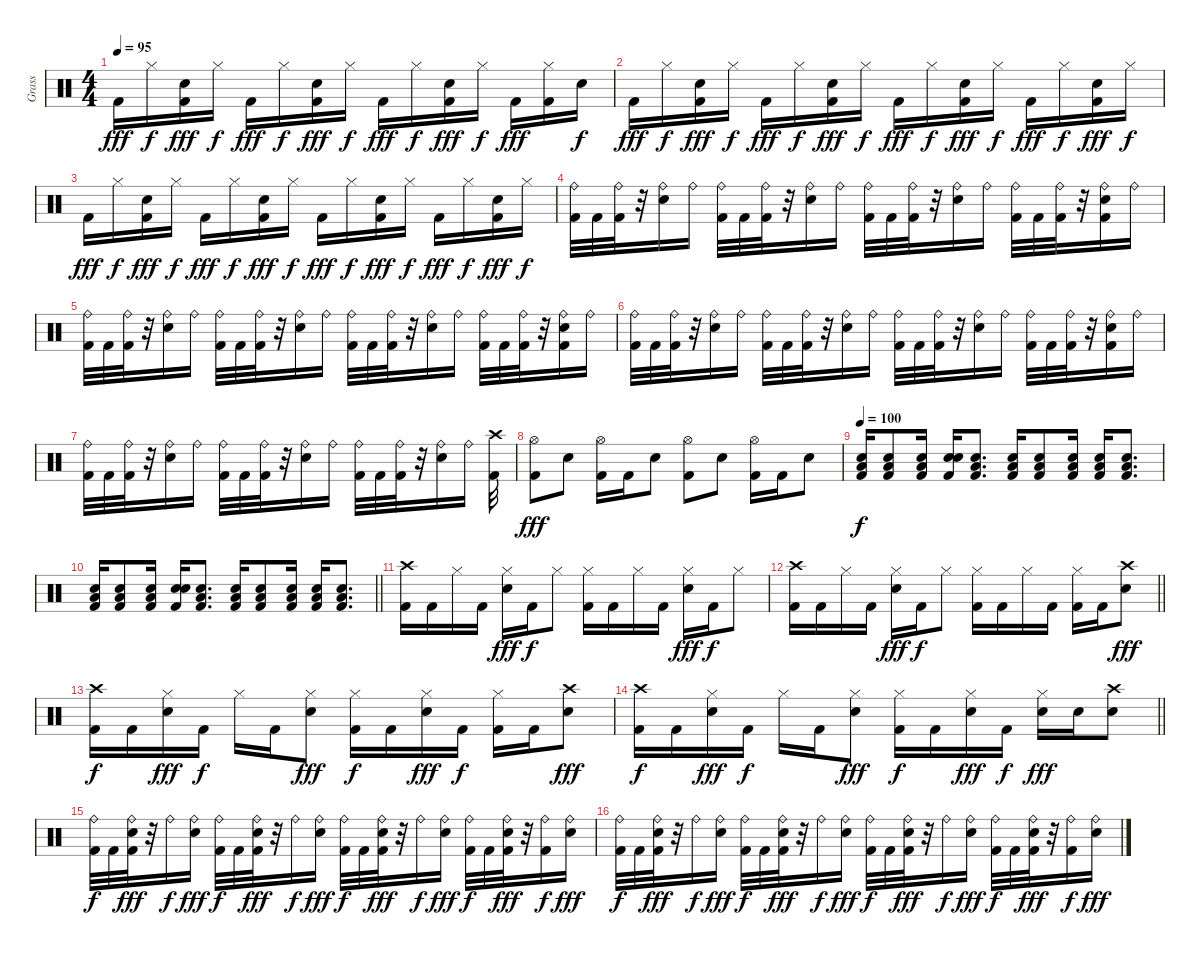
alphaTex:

\track ("Grass" "Grass") {instrument percussion}
\staff {score}
\articulation defaults
\ts (4 4)
\tempo 95
\clef neutral
\ks c "Kick (hit) 2".16{dy fff} "Hi-Hat (closed)".16{dy f}
("Kick (hit) 2" "Electric Snare (hit)").16{dy fff} "Hi-Hat (closed)".16{dy f} "Kick (hit) 2".16{dy fff} "Hi-Hat (closed)".16{dy f} ("Kick (hit) 2" "Electric Snare (hit)").16{dy fff} "Hi-Hat (closed)".16{dy f} "Kick (hit) 2".16{dy fff} "Hi-Hat (closed)".16{dy f} ("Kick (hit) 2" "Electric Snare (hit)").16{dy fff} "Hi-Hat (closed)".16{dy f} "Kick (hit) 2".16{dy fff} ("Kick (hit) 2" "Hi-Hat (closed)").16 "Electric Snare (hit)".16{dy f} |
"Kick (hit) 2".16{dy fff} "Hi-Hat (closed)".16{dy f} ("Kick (hit) 2" "Electric Snare (hit)").16{dy fff} "Hi-Hat (closed)".16{dy f} "Kick (hit) 2".16{dy fff} "Hi-Hat (closed)".16{dy f} ("Kick (hit) 2" "Electric Snare (hit)").16{dy fff} "Hi-Hat (closed)".16{dy f} "Kick (hit) 2".16{dy fff} "Hi-Hat (closed)".16{dy f} ("Kick (hit) 2" "Electric Snare (hit)").16{dy fff} "Hi-Hat (closed)".16{dy f} "Kick (hit) 2".16{dy fff} "Hi-Hat (closed)".16{dy f} ("Kick (hit) 2" "Electric Snare (hit)").16{dy fff} "Hi-Hat (closed)".16{dy f} |
"Kick (hit) 2".16{dy fff} "Hi-Hat (closed)".16{dy f} ("Kick (hit) 2" "Electric Snare (hit)").16{dy fff} "Hi-Hat (closed)".16{dy f} "Kick (hit) 2".16{dy fff} "Hi-Hat (closed)".16{dy f} ("Kick (hit) 2" "Electric Snare (hit)").16{dy fff} "Hi-Hat (closed)".16{dy f} "Kick (hit) 2".16{dy fff} "Hi-Hat (closed)".16{dy f} ("Kick (hit) 2" "Electric Snare (hit)").16{dy fff} "Hi-Hat (closed)".16{dy f} "Kick (hit) 2".16{dy fff} "Hi-Hat (closed)".16{dy f} ("Kick (hit) 2" "Electric Snare (hit)").16{dy fff} "Hi-Hat (closed)".16{dy f} |
("Kick (hit) 2" "Ride (bell)").32 "Kick (hit) 2".32 ("Kick (hit) 2" "Ride (bell)").32 r.32 ("Electric Snare (hit)" "Ride (bell)").16 "Ride (bell)".16 ("Kick (hit) 2" "Ride (bell)").32 "Kick (hit) 2".32 ("Kick (hit) 2" "Ride (bell)").32 r.32 ("Electric Snare (hit)" "Ride (bell)").16 "Ride (bell)".16 ("Kick (hit) 2" "Ride (bell)").32 "Kick (hit) 2".32 ("Kick (hit) 2" "Ride (bell)").32 r.32 ("Electric Snare (hit)" "Ride (bell)").16 "Ride (bell)".16 ("Kick (hit) 2" "Ride (bell)").32 "Kick (hit) 2".32 ("Kick (hit) 2" "Ride (bell)").32 r.32 ("Kick (hit) 2" "Electric Snare (hit)" "Ride (bell)").16 "Ride (bell)".16 |
("Kick (hit) 2" "Ride (bell)").32 "Kick (hit) 2".32 ("Kick (hit) 2" "Ride (bell)").32 r.32 ("Electric Snare (hit)" "Ride (bell)").16 "Ride (bell)".16 ("Kick (hit) 2" "Ride (bell)").32 "Kick (hit) 2".32 ("Kick (hit) 2" "Ride (bell)").32 r.32 ("Electric Snare (hit)" "Ride (bell)").16 "Ride (bell)".16 ("Kick (hit) 2" "Ride (bell)").32 "Kick (hit) 2".32 ("Kick (hit) 2" "Ride (bell)").32 r.32 ("Electric Snare (hit)" "Ride (bell)").16 "Ride (bell)".16 ("Kick (hit) 2" "Ride (bell)").32 "Kick (hit) 2".32 ("Kick (hit) 2" "Ride (bell)").32 r.32 ("Kick (hit) 2" "Electric Snare (hit)" "Ride (bell)").16 "Ride (bell)".16 |
("Kick (hit) 2" "Ride (bell)").32 "Kick (hit) 2".32 ("Kick (hit) 2" "Ride (bell)").32 r.32 ("Electric Snare (hit)" "Ride (bell)").16 "Ride (bell)".16 ("Kick (hit) 2" "Ride (bell)").32 "Kick (hit) 2".32 ("Kick (hit) 2" "Ride (bell)").32 r.32 ("Electric Snare (hit)" "Ride (bell)").16 "Ride (bell)".16 ("Kick (hit) 2" "Ride (bell)").32 "Kick (hit) 2".32 ("Kick (hit) 2" "Ride (bell)").32 r.32 ("Electric Snare (hit)" "Ride (bell)").16 "Ride (bell)".16 ("Kick (hit) 2" "Ride (bell)").32 "Kick (hit) 2".32 ("Kick (hit) 2" "Ride (bell)").32 r.32 ("Kick (hit) 2" "Electric Snare (hit)" "Ride (bell)").16 "Ride (bell)".16 |
("Kick (hit) 2" "Ride (bell)").32 "Kick (hit) 2".32 ("Kick (hit) 2" "Ride (bell)").32 r.32 ("Electric Snare (hit)" "Ride (bell)").16 "Ride (bell)".16 ("Kick (hit) 2" "Ride (bell)").32 "Kick (hit) 2".32 ("Kick (hit) 2" "Ride (bell)").32 r.32 ("Electric Snare (hit)" "Ride (bell)").16 "Ride (bell)".16 ("Kick (hit) 2" "Ride (bell)").32 "Kick (hit) 2".32 ("Kick (hit) 2" "Ride (bell)").32 r.32 ("Electric Snare (hit)" "Ride (bell)").16 "Ride (bell)".16 ("Kick (hit) 2" "Crash high (hit)").32 |
("Kick (hit) 2" "Hi-Hat (open)").8{dy fff} "Electric Snare (hit)".8 ("Kick (hit) 2" "Hi-Hat (open)").16 "Kick (hit) 2".16 "Electric Snare (hit)".8 ("Kick (hit) 2" "Hi-Hat (open)").8 "Electric Snare (hit)".8 ("Kick (hit) 2" "Hi-Hat (open)").16 "Kick (hit) 2".16 "Electric Snare (hit)".8 |
\tempo 100
("Kick (hit) 2" "Electric Snare (hit)" "Low Floor Tom (hit)").16{dy f} ("Kick (hit) 2" "Electric Snare (hit)" "Low Floor Tom (hit)").8 ("Kick (hit) 2" "Electric Snare (hit)" "Low Floor Tom (hit)").16 ("Kick (hit) 2" "Electric Snare (hit)" "Snare (hit)").16 ("Kick (hit) 2" "Electric Snare (hit)" "Low Floor Tom (hit)").8{d} ("Kick (hit) 2" "Electric Snare (hit)" "Low Floor Tom (hit)").16 ("Kick (hit) 2" "Electric Snare (hit)" "Low Floor Tom (hit)").8 ("Kick (hit) 2" "Electric Snare (hit)" "Low Floor Tom (hit)").16 ("Kick (hit) 2" "Electric Snare (hit)" "Low Floor Tom (hit)").16 ("Kick (hit) 2" "Electric Snare (hit)" "Low Floor Tom (hit)").8{d} |
\barLineRight lightlight
("Kick (hit) 2" "Electric Snare (hit)" "Low Floor Tom (hit)").16 ("Kick (hit) 2" "Electric Snare (hit)" "Low Floor Tom (hit)").8 ("Kick (hit) 2" "Electric Snare (hit)" "Low Floor Tom (hit)").16 ("Kick (hit) 2" "Electric Snare (hit)" "Snare (hit)").16 ("Kick (hit) 2" "Electric Snare (hit)" "Low Floor Tom (hit)").8{d} ("Kick (hit) 2" "Electric Snare (hit)" "Low Floor Tom (hit)").16 ("Kick (hit) 2" "Electric Snare (hit)" "Low Floor Tom (hit)").8 ("Kick (hit) 2" "Electric Snare (hit)" "Low Floor Tom (hit)").16 ("Kick (hit) 2" "Electric Snare (hit)" "Low Floor Tom (hit)").16 ("Kick (hit) 2" "Electric Snare (hit)" "Low Floor Tom (hit)").8{d} |
("Kick (hit) 2" "Crash high (hit)").16 "Kick (hit) 2".16 "Hi-Hat (closed)".16 "Kick (hit) 2".16 ("Electric Snare (hit)" "Hi-Hat (closed)").16{dy fff} "Kick (hit) 2".16{dy f} "Hi-Hat (closed)".8 ("Kick (hit) 2" "Hi-Hat (closed)").16 "Kick (hit) 2".16 "Hi-Hat (closed)".16 "Kick (hit) 2".16 ("Electric Snare (hit)" "Hi-Hat (closed)").16{dy fff} "Kick (hit) 2".16{dy f} "Hi-Hat (closed)".8 |
\barLineRight lightlight
("Kick (hit) 2" "Crash high (hit)").16 "Kick (hit) 2".16 "Hi-Hat (closed)".16 "Kick (hit) 2".16 ("Electric Snare (hit)" "Hi-Hat (closed)").16{dy fff} "Kick (hit) 2".16{dy f} "Hi-Hat (closed)".8 ("Kick (hit) 2" "Hi-Hat (closed)").16 "Kick (hit) 2".16 "Hi-Hat (closed)".16 "Kick (hit) 2".16 ("Kick (hit) 2" "Hi-Hat (closed)").16 "Kick (hit) 2".16 ("Electric Snare (hit)" "Crash high (hit)").8{dy fff} |
("Kick (hit) 2" "Crash high (hit)").16{dy f} "Kick (hit) 2".16 ("Electric Snare (hit)" "Hi-Hat (closed)").16{dy fff} "Kick (hit) 2".16{dy f} "Hi-Hat (closed)".16 "Kick (hit) 2".16 ("Electric Snare (hit)" "Hi-Hat (closed)").8{dy fff} ("Kick (hit) 2" "Hi-Hat (closed)").16{dy f} "Kick (hit) 2".16 ("Electric Snare (hit)" "Hi-Hat (closed)").16{dy fff} "Kick (hit) 2".16{dy f} ("Kick (hit) 2" "Hi-Hat (closed)").16 "Kick (hit) 2".16 ("Electric Snare (hit)" "Crash high (hit)").8{dy fff} |
\barLineRight lightlight
("Kick (hit) 2" "Crash high (hit)").16{dy f} "Kick (hit) 2".16 ("Electric Snare (hit)" "Hi-Hat (closed)").16{dy fff} "Kick (hit) 2".16{dy f} "Hi-Hat (closed)".16 "Kick (hit) 2".16 ("Electric Snare (hit)" "Hi-Hat (closed)").8{dy fff} ("Kick (hit) 2" "Hi-Hat (closed)").16{dy f} "Kick (hit) 2".16 ("Electric Snare (hit)" "Hi-Hat (closed)").16{dy fff} "Kick (hit) 2".16{dy f} ("Electric Snare (hit)" "Hi-Hat (closed)").16{dy fff} "Electric Snare (hit)".16 ("Electric Snare (hit)" "Crash high (hit)").8 |
("Kick (hit) 2" "Ride (bell)").32{dy f} "Kick (hit) 2".32 ("Kick (hit) 2" "Electric Snare (hit)" "Ride (bell)").32{dy fff} r.32 "Ride (bell)".16{dy f} ("Electric Snare (hit)" "Ride (bell)").16{dy fff} ("Kick (hit) 2" "Ride (bell)").32{dy f} "Kick (hit) 2".32 ("Kick (hit) 2" "Electric Snare (hit)" "Ride (bell)").32{dy fff} r.32 "Ride (bell)".16{dy f} ("Electric Snare (hit)" "Ride (bell)").16{dy fff} ("Kick (hit) 2" "Ride (bell)").32{dy f} "Kick (hit) 2".32 ("Kick (hit) 2" "Electric Snare (hit)" "Ride (bell)").32{dy fff} r.32 "Ride (bell)".16{dy f} ("Electric Snare (hit)" "Ride (bell)").16{dy fff} ("Kick (hit) 2" "Ride (bell)").32{dy f} "Kick (hit) 2".32 ("Kick (hit) 2" "Electric Snare (hit)" "Ride (bell)").32{dy fff} r.32 ("Kick (hit) 2" "Ride (bell)").16{dy f} ("Electric Snare (hit)" "Ride (bell)").16{dy fff} |
("Kick (hit) 2" "Ride (bell)").32{dy f} "Kick (hit) 2".32 ("Kick (hit) 2" "Electric Snare (hit)" "Ride (bell)").32{dy fff} r.32 "Ride (bell)".16{dy f} ("Electric Snare (hit)" "Ride (bell)").16{dy fff} ("Kick (hit) 2" "Ride (bell)").32{dy f} "Kick (hit) 2".32 ("Kick (hit) 2" "Electric Snare (hit)" "Ride (bell)").32{dy fff} r.32 "Ride (bell)".16{dy f} ("Electric Snare (hit)" "Ride (bell)").16{dy fff} ("Kick (hit) 2" "Ride (bell)").32{dy f} "Kick (hit) 2".32 ("Kick (hit) 2" "Electric Snare (hit)" "Ride (bell)").32{dy fff} r.32 "Ride (bell)".16{dy f} ("Electric Snare (hit)" "Ride (bell)").16{dy fff} ("Kick (hit) 2" "Ride (bell)").32{dy f} "Kick (hit) 2".32 ("Kick (hit) 2" "Electric Snare (hit)" "Ride (bell)").32{dy fff} r.32 ("Kick (hit) 2" "Ride (bell)").16{dy f} ("Electric Snare (hit)" "Ride (bell)").16{dy fff}
